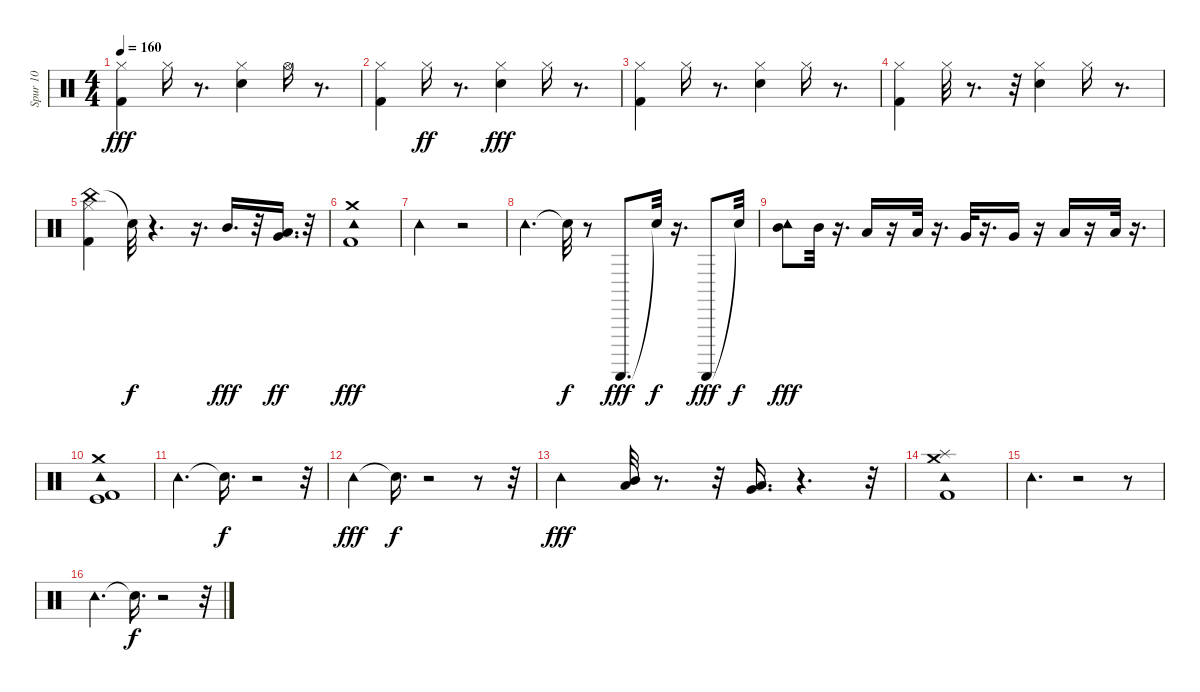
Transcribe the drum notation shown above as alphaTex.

\track ("Spur 10" "Spur 10") {instrument percussion}
\staff {score}
\articulation defaults
\ts (4 4)
\tempo 160
\clef neutral
\ks c
("Kick (hit) 2" "Hi-Hat (closed)").4{dy fff} "Hi-Hat (closed)".16 r.8{d} ("Snare (hit) 2" "Hi-Hat (closed)").4 "Hi-Hat (open)".16 r.8{d} |
("Kick (hit) 2" "Hi-Hat (closed)").4 "Hi-Hat (closed)".16{dy ff} r.8{d} ("Snare (hit) 2" "Hi-Hat (closed)").4{dy fff} "Hi-Hat (closed)".16 r.8{d} |
("Kick (hit) 2" "Hi-Hat (closed)").4 "Hi-Hat (closed)".16 r.8{d} ("Snare (hit) 2" "Hi-Hat (closed)").4 "Hi-Hat (closed)".16 r.8{d} |
("Kick (hit) 2" "Hi-Hat (closed)").4 "Hi-Hat (closed)".32 r.8{d} r.32 ("Snare (hit) 2" "Hi-Hat (closed)").4 "Hi-Hat (closed)".16 r.8{d} |
("China (hit)" "Kick (hit) 2" "Hi-Hat (closed)").4 "Snare (hit)"{t}.32{dy f} r.4{d} r.16{d} "Mid Tom (hit)".16{d dy fff} r.32 ("Low Tom (hit)" "Very Low Tom (hit)").16{d dy ff} r.32 |
("Kick (hit) 2" "Crash medium (hit)" "Tambourine (hit)").1{dy fff} |
"Tambourine (hit)".2 r.2 |
"Tambourine (hit)".4{d} "Snare (hit)"{t}.32{dy f} r.8 "Guiro (scrap-return)".8{d dy fff} "Snare (hit)"{t}.32{dy f} r.16{d} "Guiro (scrap-return)".8{dy fff} "Snare (hit)"{t}.32{dy f} |
("Mid Tom (hit)" "Tambourine (hit)").8{dy fff} "Mid Tom (hit)".32 r.16{d} "Low Tom (hit)".16 r.16 "Low Tom (hit)".32 r.16{d} "Very Low Tom (hit)".32 r.16{d} "Very Low Tom (hit)".16 r.16 "Low Floor Tom (hit)".16 r.16 "Low Floor Tom (hit)".32 r.16{d} |
("Kick (hit)" "Kick (hit) 2" "Crash medium (hit)" "Tambourine (hit)").1 |
"Tambourine (hit)".4{d} "Snare (hit)"{t}.16{d dy f} r.2 r.32 |
"Tambourine (hit)".4{dy fff} "Snare (hit)"{t}.16{d dy f} r.2 r.8 r.32 |
"Tambourine (hit)".4{dy fff} ("Low Tom (hit)" "Mid Tom (hit)").32 r.8{d} r.32 ("Very Low Tom (hit)" "Low Floor Tom (hit)").16{d} r.4{d} r.32 |
("Kick (hit) 2" "Splash (hit)" "Crash medium (hit)" "Tambourine (hit)").1 |
"Tambourine (hit)".4{d} r.2 r.8 |
"Tambourine (hit)".4{d} "Snare (hit)"{t}.16{d dy f} r.2 r.32
